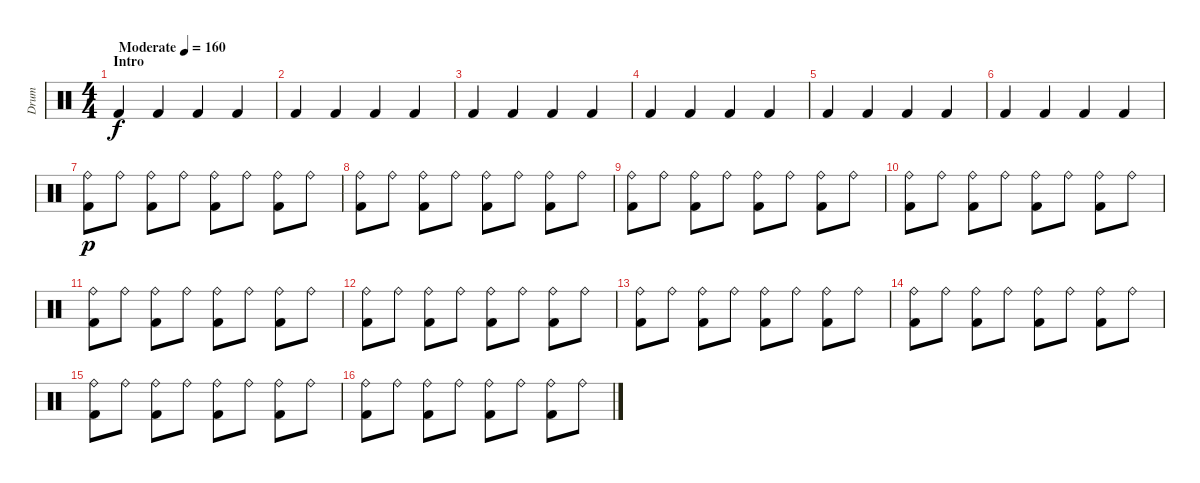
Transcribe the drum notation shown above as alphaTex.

\track ("Drum" "Drum") {instrument percussion}
\staff {score}
\articulation defaults
\ts (4 4)
\section ("" "Intro")
\tempo (160 "Moderate")
\clef neutral
\ks c "Kick (hit) 2".4{dy f} "Kick (hit) 2".4 "Kick (hit) 2".4 "Kick (hit) 2".4
|
"Kick (hit) 2".4 "Kick (hit) 2".4 "Kick (hit) 2".4 "Kick (hit) 2".4 |
"Kick (hit) 2".4 "Kick (hit) 2".4 "Kick (hit) 2".4 "Kick (hit) 2".4 |
"Kick (hit) 2".4 "Kick (hit) 2".4 "Kick (hit) 2".4 "Kick (hit) 2".4 |
"Kick (hit) 2".4 "Kick (hit) 2".4 "Kick (hit) 2".4 "Kick (hit) 2".4 |
"Kick (hit) 2".4 "Kick (hit) 2".4 "Kick (hit) 2".4 "Kick (hit) 2".4 |
("Ride (bell)" "Kick (hit) 2").8{dy p} "Ride (bell)".8 ("Ride (bell)" "Kick (hit) 2").8 "Ride (bell)".8 ("Ride (bell)" "Kick (hit) 2").8 "Ride (bell)".8 ("Ride (bell)" "Kick (hit) 2").8 "Ride (bell)".8 |
("Ride (bell)" "Kick (hit) 2").8 "Ride (bell)".8 ("Ride (bell)" "Kick (hit) 2").8 "Ride (bell)".8 ("Ride (bell)" "Kick (hit) 2").8 "Ride (bell)".8 ("Ride (bell)" "Kick (hit) 2").8 "Ride (bell)".8 |
("Ride (bell)" "Kick (hit) 2").8 "Ride (bell)".8 ("Ride (bell)" "Kick (hit) 2").8 "Ride (bell)".8 ("Ride (bell)" "Kick (hit) 2").8 "Ride (bell)".8 ("Ride (bell)" "Kick (hit) 2").8 "Ride (bell)".8 |
("Ride (bell)" "Kick (hit) 2").8 "Ride (bell)".8 ("Ride (bell)" "Kick (hit) 2").8 "Ride (bell)".8 ("Ride (bell)" "Kick (hit) 2").8 "Ride (bell)".8 ("Ride (bell)" "Kick (hit) 2").8 "Ride (bell)".8 |
("Ride (bell)" "Kick (hit) 2").8 "Ride (bell)".8 ("Ride (bell)" "Kick (hit) 2").8 "Ride (bell)".8 ("Ride (bell)" "Kick (hit) 2").8 "Ride (bell)".8 ("Ride (bell)" "Kick (hit) 2").8 "Ride (bell)".8 |
("Ride (bell)" "Kick (hit) 2").8 "Ride (bell)".8 ("Ride (bell)" "Kick (hit) 2").8 "Ride (bell)".8 ("Ride (bell)" "Kick (hit) 2").8 "Ride (bell)".8 ("Ride (bell)" "Kick (hit) 2").8 "Ride (bell)".8 |
("Ride (bell)" "Kick (hit) 2").8 "Ride (bell)".8 ("Ride (bell)" "Kick (hit) 2").8 "Ride (bell)".8 ("Ride (bell)" "Kick (hit) 2").8 "Ride (bell)".8 ("Ride (bell)" "Kick (hit) 2").8 "Ride (bell)".8 |
("Ride (bell)" "Kick (hit) 2").8 "Ride (bell)".8 ("Ride (bell)" "Kick (hit) 2").8 "Ride (bell)".8 ("Ride (bell)" "Kick (hit) 2").8 "Ride (bell)".8 ("Ride (bell)" "Kick (hit) 2").8 "Ride (bell)".8 |
("Ride (bell)" "Kick (hit) 2").8 "Ride (bell)".8 ("Ride (bell)" "Kick (hit) 2").8 "Ride (bell)".8 ("Ride (bell)" "Kick (hit) 2").8 "Ride (bell)".8 ("Ride (bell)" "Kick (hit) 2").8 "Ride (bell)".8 |
("Ride (bell)" "Kick (hit) 2").8 "Ride (bell)".8 ("Ride (bell)" "Kick (hit) 2").8 "Ride (bell)".8 ("Ride (bell)" "Kick (hit) 2").8 "Ride (bell)".8 ("Ride (bell)" "Kick (hit) 2").8 "Ride (bell)".8
